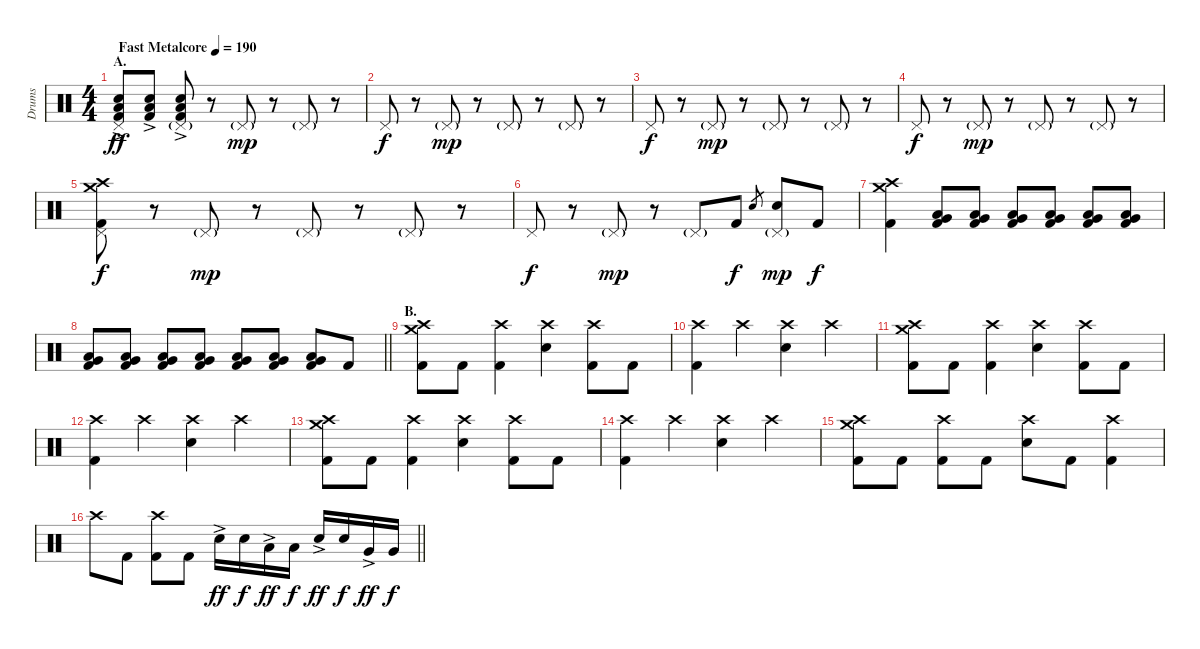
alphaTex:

\track ("Drums" "Drums") {instrument percussion}
\staff {score}
\articulation defaults
\ts (4 4)
\section ("" "A.")
\tempo (190 "Fast Metalcore")
\clef neutral
\ks c
("Pedal Hi-Hat (hit)" "Electric Snare (hit)" "Low Floor Tom (hit)"{ac} "Kick (hit) 2").8{dy ff} ("Electric Snare (hit)" "Low Floor Tom (hit)"{ac} "Kick (hit) 2").8 ("Pedal Hi-Hat (hit)"{g} "Electric Snare (hit)" "Low Floor Tom (hit)"{ac} "Kick (hit) 2").8 r.8 "Pedal Hi-Hat (hit)"{g}.8{dy mp} r.8 "Pedal Hi-Hat (hit)"{g}.8 r.8 |
"Pedal Hi-Hat (hit)".8{dy f} r.8 "Pedal Hi-Hat (hit)"{g}.8{dy mp} r.8 "Pedal Hi-Hat (hit)"{g}.8 r.8 "Pedal Hi-Hat (hit)"{g}.8 r.8 |
"Pedal Hi-Hat (hit)".8{dy f} r.8 "Pedal Hi-Hat (hit)"{g}.8{dy mp} r.8 "Pedal Hi-Hat (hit)"{g}.8 r.8 "Pedal Hi-Hat (hit)"{g}.8 r.8 |
"Pedal Hi-Hat (hit)".8{dy f} r.8 "Pedal Hi-Hat (hit)"{g}.8{dy mp} r.8 "Pedal Hi-Hat (hit)"{g}.8 r.8 "Pedal Hi-Hat (hit)"{g}.8 r.8 |
("Crash medium (hit)" "Crash high (hit)" "Pedal Hi-Hat (hit)" "Kick (hit) 2").8{dy f} r.8 "Pedal Hi-Hat (hit)"{g}.8{dy mp} r.8 "Pedal Hi-Hat (hit)"{g}.8 r.8 "Pedal Hi-Hat (hit)"{g}.8 r.8 |
"Pedal Hi-Hat (hit)".8{dy f} r.8 "Pedal Hi-Hat (hit)"{g}.8{dy mp} r.8 "Pedal Hi-Hat (hit)"{g}.8 "Kick (hit) 2".8{dy f} "Electric Snare (hit)".8{gr} ("Pedal Hi-Hat (hit)"{g} "Electric Snare (hit)").8{dy mp} "Kick (hit) 2".8{dy f} |
("Crash medium (hit)" "Crash high (hit)" "Kick (hit) 2").4 ("Very Low Tom (hit)" "Low Floor Tom (hit)" "Kick (hit) 2").8{volume 6} ("Very Low Tom (hit)" "Low Floor Tom (hit)" "Kick (hit) 2").8{volume 14} ("Very Low Tom (hit)" "Low Floor Tom (hit)" "Kick (hit) 2").8 ("Very Low Tom (hit)" "Low Floor Tom (hit)" "Kick (hit) 2").8 ("Very Low Tom (hit)" "Low Floor Tom (hit)" "Kick (hit) 2").8 ("Very Low Tom (hit)" "Low Floor Tom (hit)" "Kick (hit) 2").8 |
\barLineRight lightlight
("Very Low Tom (hit)" "Low Floor Tom (hit)" "Kick (hit) 2").8 ("Very Low Tom (hit)" "Low Floor Tom (hit)" "Kick (hit) 2").8 ("Very Low Tom (hit)" "Low Floor Tom (hit)" "Kick (hit) 2").8 ("Very Low Tom (hit)" "Low Floor Tom (hit)" "Kick (hit) 2").8 ("Very Low Tom (hit)" "Low Floor Tom (hit)" "Kick (hit) 2").8 ("Very Low Tom (hit)" "Low Floor Tom (hit)" "Kick (hit) 2").8 ("Very Low Tom (hit)" "Low Floor Tom (hit)" "Kick (hit) 2").8 "Kick (hit) 2".8 |
\section ("" "B.")
("Crash medium (hit)" "Crash high (hit)" "Kick (hit) 2").8 "Kick (hit) 2".8 ("Crash high (hit)" "Kick (hit) 2").4 ("Crash high (hit)" "Electric Snare (hit)").4 ("Crash high (hit)" "Kick (hit) 2").8 "Kick (hit) 2".8 |
("Crash high (hit)" "Kick (hit) 2").4 "Crash high (hit)".4 ("Crash high (hit)" "Electric Snare (hit)").4 "Crash high (hit)".4 |
("Crash medium (hit)" "Crash high (hit)" "Kick (hit) 2").8 "Kick (hit) 2".8 ("Crash high (hit)" "Kick (hit) 2").4 ("Crash high (hit)" "Electric Snare (hit)").4 ("Crash high (hit)" "Kick (hit) 2").8 "Kick (hit) 2".8 |
("Crash high (hit)" "Kick (hit) 2").4 "Crash high (hit)".4 ("Crash high (hit)" "Electric Snare (hit)").4 "Crash high (hit)".4 |
("Crash medium (hit)" "Crash high (hit)" "Kick (hit) 2").8 "Kick (hit) 2".8 ("Crash high (hit)" "Kick (hit) 2").4 ("Crash high (hit)" "Electric Snare (hit)").4 ("Crash high (hit)" "Kick (hit) 2").8 "Kick (hit) 2".8 |
("Crash high (hit)" "Kick (hit) 2").4 "Crash high (hit)".4 ("Crash high (hit)" "Electric Snare (hit)").4 "Crash high (hit)".4 |
("Crash medium (hit)" "Crash high (hit)" "Kick (hit) 2").8 "Kick (hit) 2".8 ("Crash high (hit)" "Kick (hit) 2").8 "Kick (hit) 2".8 ("Crash high (hit)" "Electric Snare (hit)").8 "Kick (hit) 2".8 ("Crash high (hit)" "Kick (hit) 2").4 |
\barLineRight lightlight "Crash high (hit)".8 "Kick (hit) 2".8
("Crash high (hit)" "Kick (hit) 2").8 "Kick (hit) 2".8 "Electric Snare (hit)"{ac}.16{dy ff} "Electric Snare (hit)".16{dy f} "Low Tom (hit)"{ac}.16{dy ff} "Low Tom (hit)".16{dy f} "Electric Snare (hit)"{ac}.16{dy ff} "Electric Snare (hit)".16{dy f} "Very Low Tom (hit)"{ac}.16{dy ff} "Very Low Tom (hit)".16{dy f}
